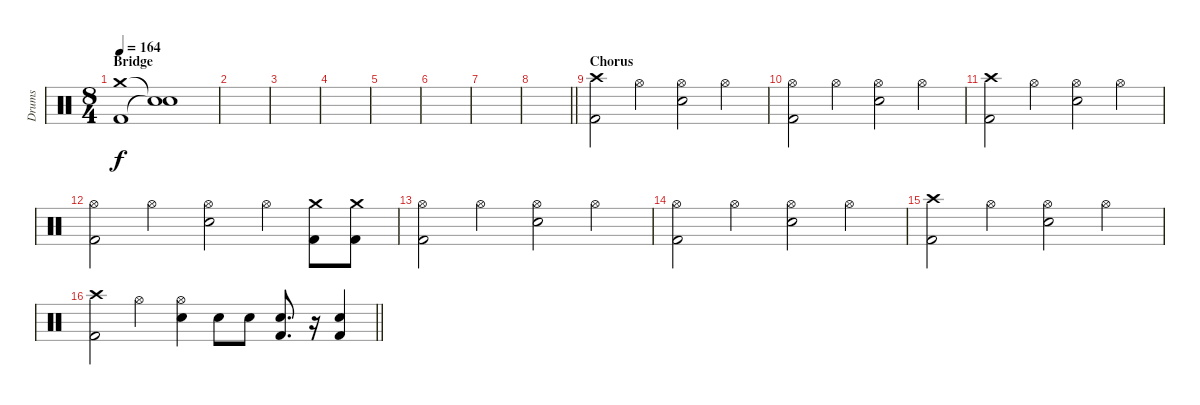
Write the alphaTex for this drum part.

\track ("Drums" "Drums") {instrument percussion}
\staff {score}
\articulation defaults
\ts (8 4)
\section ("" "Bridge")
\tempo 164
\clef neutral
\ks c
("Crash medium (hit)" "Kick (hit) 2").1{dy f} ("Snare (hit)"{t} "Snare (hit)"{t}).1 |
|
|
|
|
|
|
\barLineRight lightlight
|
\section ("" "Chorus")
("Crash high (hit)" "Kick (hit) 2").2 "Hi-Hat (open)".2 ("Hi-Hat (open)" "Snare (hit) 2").2 "Hi-Hat (open)".2 |
("Hi-Hat (open)" "Kick (hit) 2").2 "Hi-Hat (open)".2 ("Hi-Hat (open)" "Snare (hit) 2").2 "Hi-Hat (open)".2 |
("Crash high (hit)" "Kick (hit) 2").2 "Hi-Hat (open)".2 ("Hi-Hat (open)" "Snare (hit) 2").2 "Hi-Hat (open)".2 |
("Hi-Hat (open)" "Kick (hit) 2").2 "Hi-Hat (open)".2 ("Hi-Hat (open)" "Snare (hit) 2").2 "Hi-Hat (open)".4 ("Crash medium (hit)" "Kick (hit) 2").8 ("Crash medium (hit)" "Kick (hit) 2").8 |
("Hi-Hat (open)" "Kick (hit) 2").2 "Hi-Hat (open)".2 ("Hi-Hat (open)" "Snare (hit) 2").2 "Hi-Hat (open)".2 |
("Hi-Hat (open)" "Kick (hit) 2").2 "Hi-Hat (open)".2 ("Hi-Hat (open)" "Snare (hit) 2").2 "Hi-Hat (open)".2 |
("Crash high (hit)" "Kick (hit) 2").2 "Hi-Hat (open)".2 ("Hi-Hat (open)" "Snare (hit) 2").2 "Hi-Hat (open)".2 |
\barLineRight lightlight
("Crash high (hit)" "Kick (hit) 2").2 "Hi-Hat (open)".2 ("Hi-Hat (open)" "Snare (hit) 2").4 "Snare (hit) 2".8 "Snare (hit) 2".8 ("Snare (hit) 2" "Kick (hit) 2").8{d} r.16 ("Snare (hit) 2" "Kick (hit) 2").4
